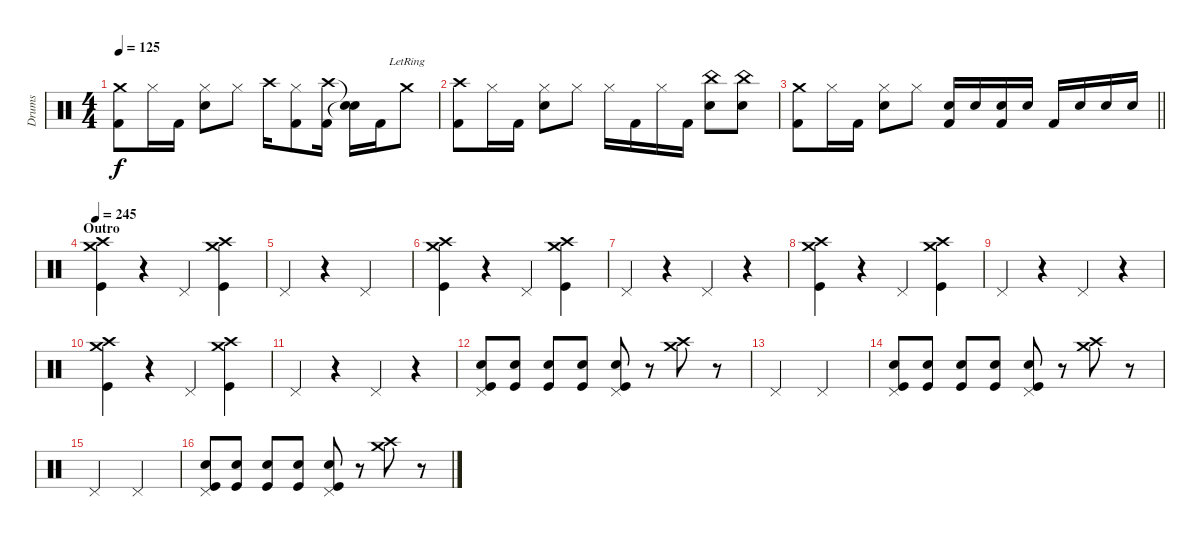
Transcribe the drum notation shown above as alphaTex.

\track ("Drums" "Drums") {instrument percussion}
\staff {score}
\articulation defaults
\ts (4 4)
\tempo 125
\clef neutral
\ks c
("Crash medium (hit)" "Kick (hit) 2").8{dy f} "Hi-Hat (closed)".16 "Kick (hit) 2".16 ("Hi-Hat (closed)" "Snare (hit) 2").8 "Hi-Hat (closed)".8 "Crash high (hit)".16 ("Hi-Hat (closed)" "Kick (hit) 2").8 ("Crash high (hit)" "Kick (hit) 2").16 ("Snare (hit)"{t} "Snare (hit)"{t}).16 "Kick (hit) 2".16 "Crash medium (hit)"{lr}.8 |
("Crash high (hit)" "Kick (hit) 2").8 "Hi-Hat (closed)".16 "Kick (hit) 2".16 ("Hi-Hat (closed)" "Snare (hit) 2").8 "Hi-Hat (closed)".8 "Hi-Hat (closed)".16 "Kick (hit) 2".16 "Hi-Hat (closed)".16 "Kick (hit) 2".16 ("China (hit)" "Snare (hit) 2").8 ("China (hit)" "Snare (hit) 2").8 |
\barLineRight lightlight
("Crash medium (hit)" "Kick (hit) 2").8 "Hi-Hat (closed)".16 "Kick (hit) 2".16 ("Hi-Hat (closed)" "Snare (hit) 2").8 "Hi-Hat (closed)".8 ("Snare (hit) 2" "Kick (hit) 2").16 "Snare (hit) 2".16 ("Snare (hit) 2" "Kick (hit) 2").16 "Snare (hit) 2".16 "Kick (hit) 2".16 "Snare (hit) 2".16 "Snare (hit) 2".16 "Snare (hit) 2".16 |
\section ("" "Outro")
\tempo 245
("Crash high (hit)" "Crash medium (hit)" "Kick (hit)").4 r.4 "Pedal Hi-Hat (hit)".4 ("Crash high (hit)" "Crash medium (hit)" "Kick (hit)").4 |
"Pedal Hi-Hat (hit)".4 r.4 "Pedal Hi-Hat (hit)".2 |
("Crash high (hit)" "Crash medium (hit)" "Kick (hit)").4 r.4 "Pedal Hi-Hat (hit)".4 ("Crash high (hit)" "Crash medium (hit)" "Kick (hit)").4 |
"Pedal Hi-Hat (hit)".4 r.4 "Pedal Hi-Hat (hit)".4 r.4 |
("Crash high (hit)" "Crash medium (hit)" "Kick (hit)").4 r.4 "Pedal Hi-Hat (hit)".4 ("Crash high (hit)" "Crash medium (hit)" "Kick (hit)").4 |
"Pedal Hi-Hat (hit)".4 r.4 "Pedal Hi-Hat (hit)".4 r.4 |
("Crash high (hit)" "Crash medium (hit)" "Kick (hit)").4 r.4 "Pedal Hi-Hat (hit)".4 ("Crash high (hit)" "Crash medium (hit)" "Kick (hit)").4 |
"Pedal Hi-Hat (hit)".4 r.4 "Pedal Hi-Hat (hit)".4 r.4 |
("Pedal Hi-Hat (hit)" "Electric Snare (hit)" "Kick (hit)").8 ("Electric Snare (hit)" "Kick (hit)").8 ("Electric Snare (hit)" "Kick (hit)").8 ("Electric Snare (hit)" "Kick (hit)").8 ("Pedal Hi-Hat (hit)" "Electric Snare (hit)" "Kick (hit)").8 r.8 ("Crash high (hit)" "Crash medium (hit)").8 r.8 |
"Pedal Hi-Hat (hit)".2 "Pedal Hi-Hat (hit)".2 |
("Pedal Hi-Hat (hit)" "Electric Snare (hit)" "Kick (hit)").8 ("Electric Snare (hit)" "Kick (hit)").8 ("Electric Snare (hit)" "Kick (hit)").8 ("Electric Snare (hit)" "Kick (hit)").8 ("Pedal Hi-Hat (hit)" "Electric Snare (hit)" "Kick (hit)").8 r.8 ("Crash high (hit)" "Crash medium (hit)").8 r.8 |
"Pedal Hi-Hat (hit)".2 "Pedal Hi-Hat (hit)".2 |
("Pedal Hi-Hat (hit)" "Electric Snare (hit)" "Kick (hit)").8 ("Electric Snare (hit)" "Kick (hit)").8 ("Electric Snare (hit)" "Kick (hit)").8 ("Electric Snare (hit)" "Kick (hit)").8 ("Pedal Hi-Hat (hit)" "Electric Snare (hit)" "Kick (hit)").8 r.8 ("Crash high (hit)" "Crash medium (hit)").8 r.8
